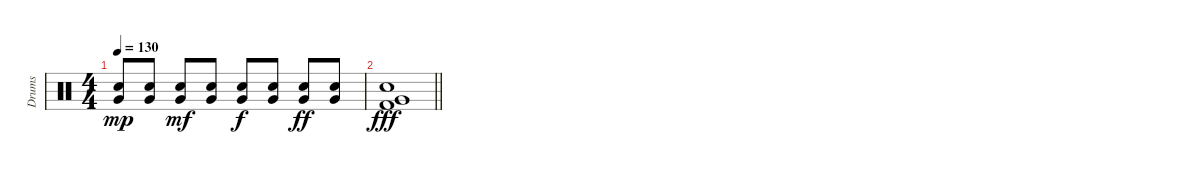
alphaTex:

\track ("Drums" "Drums") {instrument percussion}
\staff {score}
\articulation defaults
\ts (4 4)
\tempo 130
\clef neutral
\ks c
("Very Low Tom (hit)" "Snare (hit) 2").8{dy mp} ("Very Low Tom (hit)" "Snare (hit) 2").8 ("Very Low Tom (hit)" "Snare (hit) 2").8{dy mf} ("Very Low Tom (hit)" "Snare (hit) 2").8 ("Very Low Tom (hit)" "Snare (hit) 2").8{dy f} ("Very Low Tom (hit)" "Snare (hit) 2").8 ("Very Low Tom (hit)" "Snare (hit) 2").8{dy ff} ("Very Low Tom (hit)" "Snare (hit) 2").8 |
\barLineRight lightlight
("Very Low Tom (hit)" "Snare (hit) 2" "Kick (hit) 2").1{dy fff}
